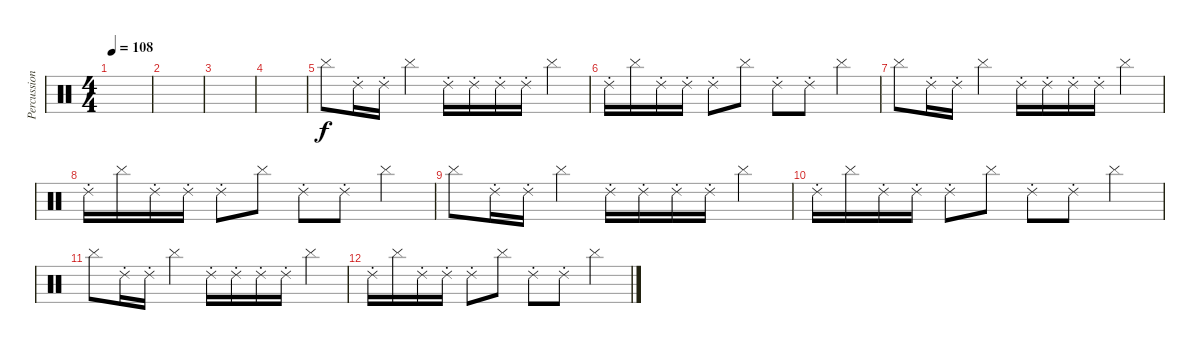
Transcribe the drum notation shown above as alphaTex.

\track ("Percussion" "Percussion") {instrument percussion}
\staff {score}
\articulation defaults
\ts (4 4)
\tempo 108
\clef neutral
\ks c
|
|
|
|
"Cymbal (hit)".8 "Ride (choke) 2".16 "Ride (choke) 2".16 "Cymbal (hit)".4 "Ride (choke) 2".16 "Ride (choke) 2".16 "Ride (choke) 2".16 "Ride (choke) 2".16 "Cymbal (hit)".4 |
"Ride (choke) 2".16 "Cymbal (hit)".16 "Ride (choke) 2".16 "Ride (choke) 2".16 "Ride (choke) 2".8 "Cymbal (hit)".8 "Ride (choke) 2".8 "Ride (choke) 2".8 "Cymbal (hit)".4 |
"Cymbal (hit)".8 "Ride (choke) 2".16 "Ride (choke) 2".16 "Cymbal (hit)".4 "Ride (choke) 2".16 "Ride (choke) 2".16 "Ride (choke) 2".16 "Ride (choke) 2".16 "Cymbal (hit)".4 |
"Ride (choke) 2".16 "Cymbal (hit)".16 "Ride (choke) 2".16 "Ride (choke) 2".16 "Ride (choke) 2".8 "Cymbal (hit)".8 "Ride (choke) 2".8 "Ride (choke) 2".8 "Cymbal (hit)".4 |
"Cymbal (hit)".8 "Ride (choke) 2".16 "Ride (choke) 2".16 "Cymbal (hit)".4 "Ride (choke) 2".16 "Ride (choke) 2".16 "Ride (choke) 2".16 "Ride (choke) 2".16 "Cymbal (hit)".4 |
"Ride (choke) 2".16 "Cymbal (hit)".16 "Ride (choke) 2".16 "Ride (choke) 2".16 "Ride (choke) 2".8 "Cymbal (hit)".8 "Ride (choke) 2".8 "Ride (choke) 2".8 "Cymbal (hit)".4 |
"Cymbal (hit)".8 "Ride (choke) 2".16 "Ride (choke) 2".16 "Cymbal (hit)".4 "Ride (choke) 2".16 "Ride (choke) 2".16 "Ride (choke) 2".16 "Ride (choke) 2".16 "Cymbal (hit)".4 |
"Ride (choke) 2".16 "Cymbal (hit)".16 "Ride (choke) 2".16 "Ride (choke) 2".16 "Ride (choke) 2".8 "Cymbal (hit)".8 "Ride (choke) 2".8 "Ride (choke) 2".8 "Cymbal (hit)".4
